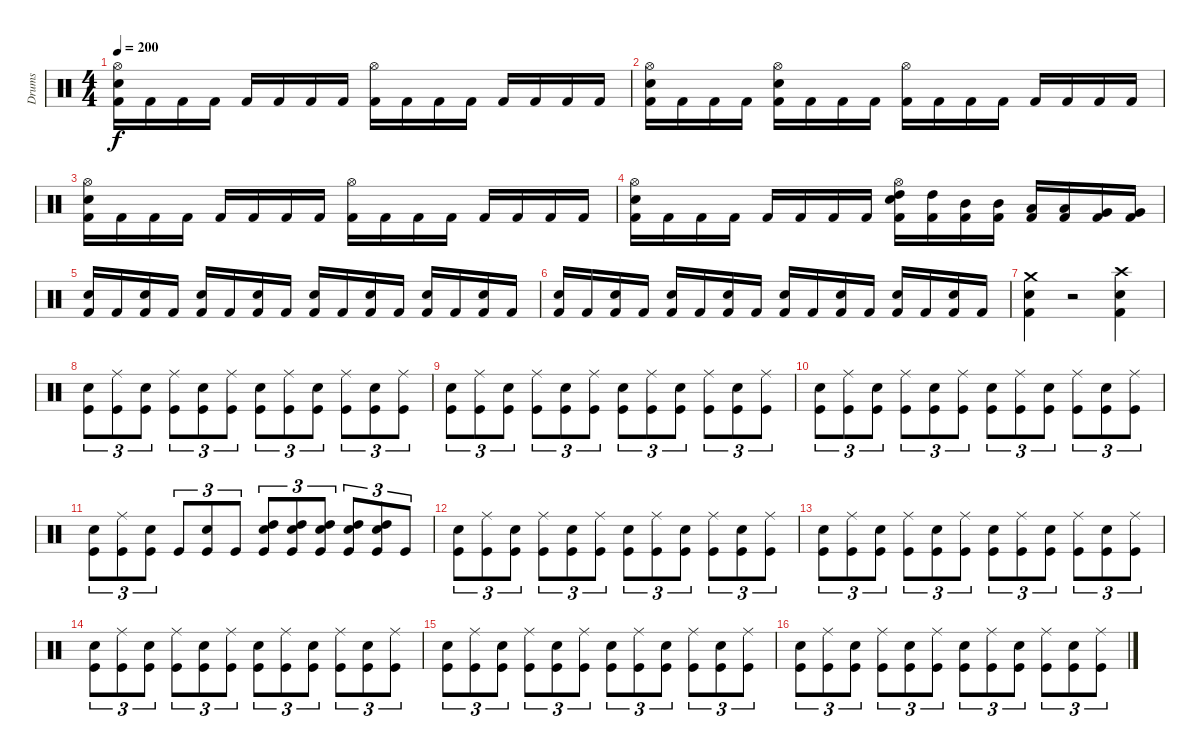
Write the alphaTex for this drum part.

\track ("Drums" "Drums") {instrument percussion}
\staff {score}
\articulation defaults
\ts (4 4)
\tempo 200
\clef neutral
\ks c
("Hi-Hat (open)" "Electric Snare (hit)" "Kick (hit) 2").16{dy f} "Kick (hit) 2".16 "Kick (hit) 2".16 "Kick (hit) 2".16 "Kick (hit) 2".16 "Kick (hit) 2".16 "Kick (hit) 2".16 "Kick (hit) 2".16 ("Hi-Hat (open)" "Kick (hit) 2").16 "Kick (hit) 2".16 "Kick (hit) 2".16 "Kick (hit) 2".16 "Kick (hit) 2".16 "Kick (hit) 2".16 "Kick (hit) 2".16 "Kick (hit) 2".16 |
("Hi-Hat (open)" "Electric Snare (hit)" "Kick (hit) 2").16 "Kick (hit) 2".16 "Kick (hit) 2".16 "Kick (hit) 2".16 ("Hi-Hat (open)" "Electric Snare (hit)" "Kick (hit) 2").16 "Kick (hit) 2".16 "Kick (hit) 2".16 "Kick (hit) 2".16 ("Hi-Hat (open)" "Kick (hit) 2").16 "Kick (hit) 2".16 "Kick (hit) 2".16 "Kick (hit) 2".16 "Kick (hit) 2".16 "Kick (hit) 2".16 "Kick (hit) 2".16 "Kick (hit) 2".16 |
("Hi-Hat (open)" "Electric Snare (hit)" "Kick (hit) 2").16 "Kick (hit) 2".16 "Kick (hit) 2".16 "Kick (hit) 2".16 "Kick (hit) 2".16 "Kick (hit) 2".16 "Kick (hit) 2".16 "Kick (hit) 2".16 ("Hi-Hat (open)" "Kick (hit) 2").16 "Kick (hit) 2".16 "Kick (hit) 2".16 "Kick (hit) 2".16 "Kick (hit) 2".16 "Kick (hit) 2".16 "Kick (hit) 2".16 "Kick (hit) 2".16 |
("Hi-Hat (open)" "Electric Snare (hit)" "Kick (hit) 2").16 "Kick (hit) 2".16 "Kick (hit) 2".16 "Kick (hit) 2".16 "Kick (hit) 2".16 "Kick (hit) 2".16 "Kick (hit) 2".16 "Kick (hit) 2".16 ("Hi-Hat (open)" "High Tom (hit)" "Electric Snare (hit)" "Kick (hit) 2").16 ("High Tom (hit)" "Kick (hit) 2").16 ("Mid Tom (hit)" "Kick (hit) 2").16 ("Mid Tom (hit)" "Kick (hit) 2").16 ("Low Tom (hit)" "Kick (hit) 2").16 ("Low Tom (hit)" "Kick (hit) 2").16 ("Very Low Tom (hit)" "Kick (hit) 2").16 ("Very Low Tom (hit)" "Kick (hit) 2").16 |
("Electric Snare (hit)" "Kick (hit) 2").16 "Kick (hit) 2".16 ("Electric Snare (hit)" "Kick (hit) 2").16 "Kick (hit) 2".16 ("Electric Snare (hit)" "Kick (hit) 2").16 "Kick (hit) 2".16 ("Electric Snare (hit)" "Kick (hit) 2").16 "Kick (hit) 2".16 ("Electric Snare (hit)" "Kick (hit) 2").16 "Kick (hit) 2".16 ("Electric Snare (hit)" "Kick (hit) 2").16 "Kick (hit) 2".16 ("Electric Snare (hit)" "Kick (hit) 2").16 "Kick (hit) 2".16 ("Electric Snare (hit)" "Kick (hit) 2").16 "Kick (hit) 2".16 |
("Electric Snare (hit)" "Kick (hit) 2").16 "Kick (hit) 2".16 ("Electric Snare (hit)" "Kick (hit) 2").16 "Kick (hit) 2".16 ("Electric Snare (hit)" "Kick (hit) 2").16 "Kick (hit) 2".16 ("Electric Snare (hit)" "Kick (hit) 2").16 "Kick (hit) 2".16 ("Electric Snare (hit)" "Kick (hit) 2").16 "Kick (hit) 2".16 ("Electric Snare (hit)" "Kick (hit) 2").16 "Kick (hit) 2".16 ("Electric Snare (hit)" "Kick (hit) 2").16 "Kick (hit) 2".16 ("Electric Snare (hit)" "Kick (hit) 2").16 "Kick (hit) 2".16 |
("Crash medium (hit)" "Electric Snare (hit)" "Kick (hit) 2").4 r.2 ("Crash high (hit)" "Electric Snare (hit)" "Kick (hit) 2").4 |
("Electric Snare (hit)" "Kick (hit)").8{tu (3 2)} ("Ride (middle)" "Kick (hit)").8{tu (3 2)} ("Electric Snare (hit)" "Kick (hit)").8{tu (3 2)} ("Ride (middle)" "Kick (hit)").8{tu (3 2)} ("Electric Snare (hit)" "Kick (hit)").8{tu (3 2)} ("Ride (middle)" "Kick (hit)").8{tu (3 2)} ("Electric Snare (hit)" "Kick (hit)").8{tu (3 2)} ("Ride (middle)" "Kick (hit)").8{tu (3 2)} ("Electric Snare (hit)" "Kick (hit)").8{tu (3 2)} ("Ride (middle)" "Kick (hit)").8{tu (3 2)} ("Electric Snare (hit)" "Kick (hit)").8{tu (3 2)} ("Ride (middle)" "Kick (hit)").8{tu (3 2)} |
("Electric Snare (hit)" "Kick (hit)").8{tu (3 2)} ("Ride (middle)" "Kick (hit)").8{tu (3 2)} ("Electric Snare (hit)" "Kick (hit)").8{tu (3 2)} ("Ride (middle)" "Kick (hit)").8{tu (3 2)} ("Electric Snare (hit)" "Kick (hit)").8{tu (3 2)} ("Ride (middle)" "Kick (hit)").8{tu (3 2)} ("Electric Snare (hit)" "Kick (hit)").8{tu (3 2)} ("Ride (middle)" "Kick (hit)").8{tu (3 2)} ("Electric Snare (hit)" "Kick (hit)").8{tu (3 2)} ("Ride (middle)" "Kick (hit)").8{tu (3 2)} ("Electric Snare (hit)" "Kick (hit)").8{tu (3 2)} ("Ride (middle)" "Kick (hit)").8{tu (3 2)} |
("Electric Snare (hit)" "Kick (hit)").8{tu (3 2)} ("Ride (middle)" "Kick (hit)").8{tu (3 2)} ("Electric Snare (hit)" "Kick (hit)").8{tu (3 2)} ("Ride (middle)" "Kick (hit)").8{tu (3 2)} ("Electric Snare (hit)" "Kick (hit)").8{tu (3 2)} ("Ride (middle)" "Kick (hit)").8{tu (3 2)} ("Electric Snare (hit)" "Kick (hit)").8{tu (3 2)} ("Ride (middle)" "Kick (hit)").8{tu (3 2)} ("Electric Snare (hit)" "Kick (hit)").8{tu (3 2)} ("Ride (middle)" "Kick (hit)").8{tu (3 2)} ("Electric Snare (hit)" "Kick (hit)").8{tu (3 2)} ("Ride (middle)" "Kick (hit)").8{tu (3 2)} |
("Electric Snare (hit)" "Kick (hit)").8{tu (3 2)} ("Ride (middle)" "Kick (hit)").8{tu (3 2)} ("Electric Snare (hit)" "Kick (hit)").8{tu (3 2)} "Kick (hit)".8{tu (3 2)} ("Electric Snare (hit)" "Kick (hit)").8{tu (3 2)} "Kick (hit)".8{tu (3 2)} ("High Tom (hit)" "Electric Snare (hit)" "Kick (hit)").8{tu (3 2)} ("High Tom (hit)" "Electric Snare (hit)" "Kick (hit)").8{tu (3 2)} ("High Tom (hit)" "Electric Snare (hit)" "Kick (hit)").8{tu (3 2)} ("High Tom (hit)" "Electric Snare (hit)" "Kick (hit)").8{tu (3 2)} ("High Tom (hit)" "Electric Snare (hit)" "Kick (hit)").8{tu (3 2)} "Kick (hit)".8{tu (3 2)} |
("Electric Snare (hit)" "Kick (hit)").8{tu (3 2)} ("Ride (middle)" "Kick (hit)").8{tu (3 2)} ("Electric Snare (hit)" "Kick (hit)").8{tu (3 2)} ("Ride (middle)" "Kick (hit)").8{tu (3 2)} ("Electric Snare (hit)" "Kick (hit)").8{tu (3 2)} ("Ride (middle)" "Kick (hit)").8{tu (3 2)} ("Electric Snare (hit)" "Kick (hit)").8{tu (3 2)} ("Ride (middle)" "Kick (hit)").8{tu (3 2)} ("Electric Snare (hit)" "Kick (hit)").8{tu (3 2)} ("Ride (middle)" "Kick (hit)").8{tu (3 2)} ("Electric Snare (hit)" "Kick (hit)").8{tu (3 2)} ("Ride (middle)" "Kick (hit)").8{tu (3 2)} |
("Electric Snare (hit)" "Kick (hit)").8{tu (3 2)} ("Ride (middle)" "Kick (hit)").8{tu (3 2)} ("Electric Snare (hit)" "Kick (hit)").8{tu (3 2)} ("Ride (middle)" "Kick (hit)").8{tu (3 2)} ("Electric Snare (hit)" "Kick (hit)").8{tu (3 2)} ("Ride (middle)" "Kick (hit)").8{tu (3 2)} ("Electric Snare (hit)" "Kick (hit)").8{tu (3 2)} ("Ride (middle)" "Kick (hit)").8{tu (3 2)} ("Electric Snare (hit)" "Kick (hit)").8{tu (3 2)} ("Ride (middle)" "Kick (hit)").8{tu (3 2)} ("Electric Snare (hit)" "Kick (hit)").8{tu (3 2)} ("Ride (middle)" "Kick (hit)").8{tu (3 2)} |
("Electric Snare (hit)" "Kick (hit)").8{tu (3 2)} ("Ride (middle)" "Kick (hit)").8{tu (3 2)} ("Electric Snare (hit)" "Kick (hit)").8{tu (3 2)} ("Ride (middle)" "Kick (hit)").8{tu (3 2)} ("Electric Snare (hit)" "Kick (hit)").8{tu (3 2)} ("Ride (middle)" "Kick (hit)").8{tu (3 2)} ("Electric Snare (hit)" "Kick (hit)").8{tu (3 2)} ("Ride (middle)" "Kick (hit)").8{tu (3 2)} ("Electric Snare (hit)" "Kick (hit)").8{tu (3 2)} ("Ride (middle)" "Kick (hit)").8{tu (3 2)} ("Electric Snare (hit)" "Kick (hit)").8{tu (3 2)} ("Ride (middle)" "Kick (hit)").8{tu (3 2)} |
("Electric Snare (hit)" "Kick (hit)").8{tu (3 2)} ("Ride (middle)" "Kick (hit)").8{tu (3 2)} ("Electric Snare (hit)" "Kick (hit)").8{tu (3 2)} ("Ride (middle)" "Kick (hit)").8{tu (3 2)} ("Electric Snare (hit)" "Kick (hit)").8{tu (3 2)} ("Ride (middle)" "Kick (hit)").8{tu (3 2)} ("Electric Snare (hit)" "Kick (hit)").8{tu (3 2)} ("Ride (middle)" "Kick (hit)").8{tu (3 2)} ("Electric Snare (hit)" "Kick (hit)").8{tu (3 2)} ("Ride (middle)" "Kick (hit)").8{tu (3 2)} ("Electric Snare (hit)" "Kick (hit)").8{tu (3 2)} ("Ride (middle)" "Kick (hit)").8{tu (3 2)} |
("Electric Snare (hit)" "Kick (hit)").8{tu (3 2)} ("Ride (middle)" "Kick (hit)").8{tu (3 2)} ("Electric Snare (hit)" "Kick (hit)").8{tu (3 2)} ("Ride (middle)" "Kick (hit)").8{tu (3 2)} ("Electric Snare (hit)" "Kick (hit)").8{tu (3 2)} ("Ride (middle)" "Kick (hit)").8{tu (3 2)} ("Electric Snare (hit)" "Kick (hit)").8{tu (3 2)} ("Ride (middle)" "Kick (hit)").8{tu (3 2)} ("Electric Snare (hit)" "Kick (hit)").8{tu (3 2)} ("Ride (middle)" "Kick (hit)").8{tu (3 2)} ("Electric Snare (hit)" "Kick (hit)").8{tu (3 2)} ("Ride (middle)" "Kick (hit)").8{tu (3 2)}
